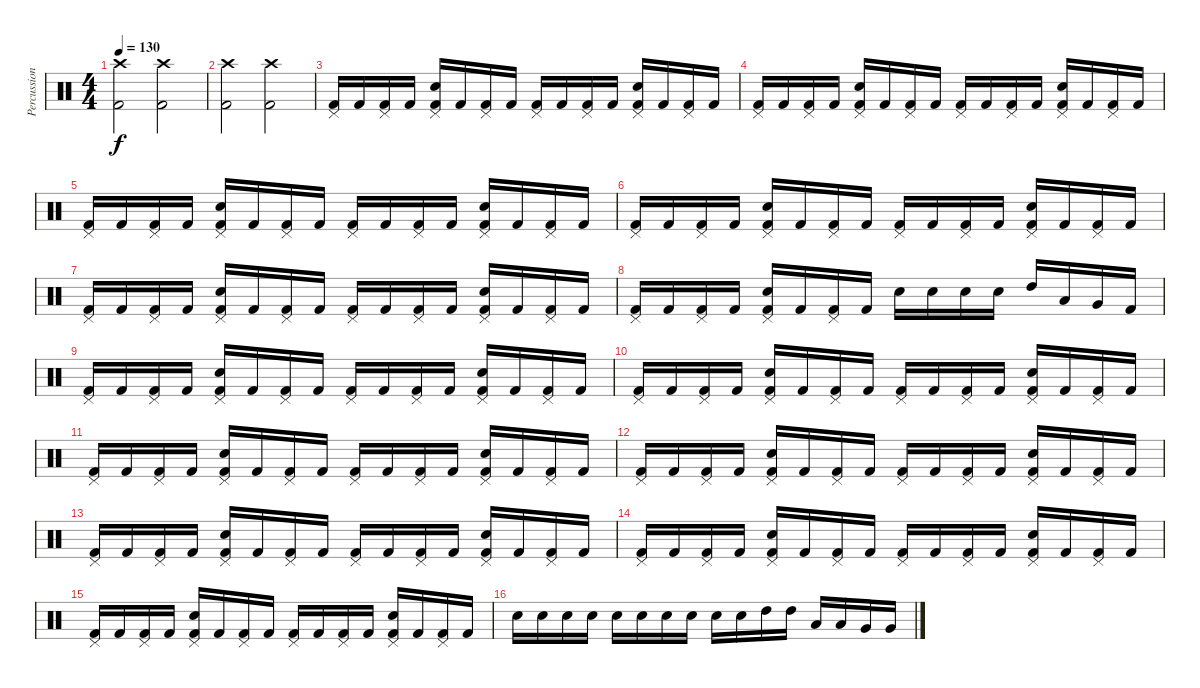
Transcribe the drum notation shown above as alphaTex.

\track ("Percussion" "Percussion") {instrument percussion}
\staff {score}
\articulation defaults
\ts (4 4)
\tempo 130
\clef neutral
\ks c
("Crash high (hit)" "Kick (hit) 2").2{dy f} ("Crash high (hit)" "Kick (hit) 2").2 |
("Crash high (hit)" "Kick (hit) 2").2 ("Crash high (hit)" "Kick (hit) 2").2 |
("Pedal Hi-Hat (hit)" "Kick (hit) 2").16 "Kick (hit) 2".16 ("Pedal Hi-Hat (hit)" "Kick (hit) 2").16 "Kick (hit) 2".16 ("Pedal Hi-Hat (hit)" "Snare (hit) 2" "Kick (hit) 2").16 "Kick (hit) 2".16 ("Pedal Hi-Hat (hit)" "Kick (hit) 2").16 "Kick (hit) 2".16 ("Pedal Hi-Hat (hit)" "Kick (hit) 2").16 "Kick (hit) 2".16 ("Pedal Hi-Hat (hit)" "Kick (hit) 2").16 "Kick (hit) 2".16 ("Pedal Hi-Hat (hit)" "Snare (hit) 2" "Kick (hit) 2").16 "Kick (hit) 2".16 ("Pedal Hi-Hat (hit)" "Kick (hit) 2").16 "Kick (hit) 2".16 |
("Pedal Hi-Hat (hit)" "Kick (hit) 2").16 "Kick (hit) 2".16 ("Pedal Hi-Hat (hit)" "Kick (hit) 2").16 "Kick (hit) 2".16 ("Pedal Hi-Hat (hit)" "Snare (hit) 2" "Kick (hit) 2").16 "Kick (hit) 2".16 ("Pedal Hi-Hat (hit)" "Kick (hit) 2").16 "Kick (hit) 2".16 ("Pedal Hi-Hat (hit)" "Kick (hit) 2").16 "Kick (hit) 2".16 ("Pedal Hi-Hat (hit)" "Kick (hit) 2").16 "Kick (hit) 2".16 ("Pedal Hi-Hat (hit)" "Snare (hit) 2" "Kick (hit) 2").16 "Kick (hit) 2".16 ("Pedal Hi-Hat (hit)" "Kick (hit) 2").16 "Kick (hit) 2".16 |
("Pedal Hi-Hat (hit)" "Kick (hit) 2").16 "Kick (hit) 2".16 ("Pedal Hi-Hat (hit)" "Kick (hit) 2").16 "Kick (hit) 2".16 ("Pedal Hi-Hat (hit)" "Snare (hit) 2" "Kick (hit) 2").16 "Kick (hit) 2".16 ("Pedal Hi-Hat (hit)" "Kick (hit) 2").16 "Kick (hit) 2".16 ("Pedal Hi-Hat (hit)" "Kick (hit) 2").16 "Kick (hit) 2".16 ("Pedal Hi-Hat (hit)" "Kick (hit) 2").16 "Kick (hit) 2".16 ("Pedal Hi-Hat (hit)" "Snare (hit) 2" "Kick (hit) 2").16 "Kick (hit) 2".16 ("Pedal Hi-Hat (hit)" "Kick (hit) 2").16 "Kick (hit) 2".16 |
("Pedal Hi-Hat (hit)" "Kick (hit) 2").16 "Kick (hit) 2".16 ("Pedal Hi-Hat (hit)" "Kick (hit) 2").16 "Kick (hit) 2".16 ("Pedal Hi-Hat (hit)" "Snare (hit) 2" "Kick (hit) 2").16 "Kick (hit) 2".16 ("Pedal Hi-Hat (hit)" "Kick (hit) 2").16 "Kick (hit) 2".16 ("Pedal Hi-Hat (hit)" "Kick (hit) 2").16 "Kick (hit) 2".16 ("Pedal Hi-Hat (hit)" "Kick (hit) 2").16 "Kick (hit) 2".16 ("Pedal Hi-Hat (hit)" "Snare (hit) 2" "Kick (hit) 2").16 "Kick (hit) 2".16 ("Pedal Hi-Hat (hit)" "Kick (hit) 2").16 "Kick (hit) 2".16 |
("Pedal Hi-Hat (hit)" "Kick (hit) 2").16 "Kick (hit) 2".16 ("Pedal Hi-Hat (hit)" "Kick (hit) 2").16 "Kick (hit) 2".16 ("Pedal Hi-Hat (hit)" "Snare (hit) 2" "Kick (hit) 2").16 "Kick (hit) 2".16 ("Pedal Hi-Hat (hit)" "Kick (hit) 2").16 "Kick (hit) 2".16 ("Pedal Hi-Hat (hit)" "Kick (hit) 2").16 "Kick (hit) 2".16 ("Pedal Hi-Hat (hit)" "Kick (hit) 2").16 "Kick (hit) 2".16 ("Pedal Hi-Hat (hit)" "Snare (hit) 2" "Kick (hit) 2").16 "Kick (hit) 2".16 ("Pedal Hi-Hat (hit)" "Kick (hit) 2").16 "Kick (hit) 2".16 |
("Pedal Hi-Hat (hit)" "Kick (hit) 2").16 "Kick (hit) 2".16 ("Pedal Hi-Hat (hit)" "Kick (hit) 2").16 "Kick (hit) 2".16 ("Pedal Hi-Hat (hit)" "Snare (hit) 2" "Kick (hit) 2").16 "Kick (hit) 2".16 ("Pedal Hi-Hat (hit)" "Kick (hit) 2").16 "Kick (hit) 2".16 "Snare (hit) 2".16 "Snare (hit) 2".16 "Snare (hit) 2".16 "Snare (hit) 2".16 "High Tom (hit)".16 "Low Tom (hit)".16 "Very Low Tom (hit)".16 "Kick (hit) 2".16 |
("Pedal Hi-Hat (hit)" "Kick (hit) 2").16 "Kick (hit) 2".16 ("Pedal Hi-Hat (hit)" "Kick (hit) 2").16 "Kick (hit) 2".16 ("Pedal Hi-Hat (hit)" "Snare (hit) 2" "Kick (hit) 2").16 "Kick (hit) 2".16 ("Pedal Hi-Hat (hit)" "Kick (hit) 2").16 "Kick (hit) 2".16 ("Pedal Hi-Hat (hit)" "Kick (hit) 2").16 "Kick (hit) 2".16 ("Pedal Hi-Hat (hit)" "Kick (hit) 2").16 "Kick (hit) 2".16 ("Pedal Hi-Hat (hit)" "Snare (hit) 2" "Kick (hit) 2").16 "Kick (hit) 2".16 ("Pedal Hi-Hat (hit)" "Kick (hit) 2").16 "Kick (hit) 2".16 |
("Pedal Hi-Hat (hit)" "Kick (hit) 2").16 "Kick (hit) 2".16 ("Pedal Hi-Hat (hit)" "Kick (hit) 2").16 "Kick (hit) 2".16 ("Pedal Hi-Hat (hit)" "Snare (hit) 2" "Kick (hit) 2").16 "Kick (hit) 2".16 ("Pedal Hi-Hat (hit)" "Kick (hit) 2").16 "Kick (hit) 2".16 ("Pedal Hi-Hat (hit)" "Kick (hit) 2").16 "Kick (hit) 2".16 ("Pedal Hi-Hat (hit)" "Kick (hit) 2").16 "Kick (hit) 2".16 ("Pedal Hi-Hat (hit)" "Snare (hit) 2" "Kick (hit) 2").16 "Kick (hit) 2".16 ("Pedal Hi-Hat (hit)" "Kick (hit) 2").16 "Kick (hit) 2".16 |
("Pedal Hi-Hat (hit)" "Kick (hit) 2").16 "Kick (hit) 2".16 ("Pedal Hi-Hat (hit)" "Kick (hit) 2").16 "Kick (hit) 2".16 ("Pedal Hi-Hat (hit)" "Snare (hit) 2" "Kick (hit) 2").16 "Kick (hit) 2".16 ("Pedal Hi-Hat (hit)" "Kick (hit) 2").16 "Kick (hit) 2".16 ("Pedal Hi-Hat (hit)" "Kick (hit) 2").16 "Kick (hit) 2".16 ("Pedal Hi-Hat (hit)" "Kick (hit) 2").16 "Kick (hit) 2".16 ("Pedal Hi-Hat (hit)" "Snare (hit) 2" "Kick (hit) 2").16 "Kick (hit) 2".16 ("Pedal Hi-Hat (hit)" "Kick (hit) 2").16 "Kick (hit) 2".16 |
("Pedal Hi-Hat (hit)" "Kick (hit) 2").16 "Kick (hit) 2".16 ("Pedal Hi-Hat (hit)" "Kick (hit) 2").16 "Kick (hit) 2".16 ("Pedal Hi-Hat (hit)" "Snare (hit) 2" "Kick (hit) 2").16 "Kick (hit) 2".16 ("Pedal Hi-Hat (hit)" "Kick (hit) 2").16 "Kick (hit) 2".16 ("Pedal Hi-Hat (hit)" "Kick (hit) 2").16 "Kick (hit) 2".16 ("Pedal Hi-Hat (hit)" "Kick (hit) 2").16 "Kick (hit) 2".16 ("Pedal Hi-Hat (hit)" "Snare (hit) 2" "Kick (hit) 2").16 "Kick (hit) 2".16 ("Pedal Hi-Hat (hit)" "Kick (hit) 2").16 "Kick (hit) 2".16 |
("Pedal Hi-Hat (hit)" "Kick (hit) 2").16 "Kick (hit) 2".16 ("Pedal Hi-Hat (hit)" "Kick (hit) 2").16 "Kick (hit) 2".16 ("Pedal Hi-Hat (hit)" "Snare (hit) 2" "Kick (hit) 2").16 "Kick (hit) 2".16 ("Pedal Hi-Hat (hit)" "Kick (hit) 2").16 "Kick (hit) 2".16 ("Pedal Hi-Hat (hit)" "Kick (hit) 2").16 "Kick (hit) 2".16 ("Pedal Hi-Hat (hit)" "Kick (hit) 2").16 "Kick (hit) 2".16 ("Pedal Hi-Hat (hit)" "Snare (hit) 2" "Kick (hit) 2").16 "Kick (hit) 2".16 ("Pedal Hi-Hat (hit)" "Kick (hit) 2").16 "Kick (hit) 2".16 |
("Pedal Hi-Hat (hit)" "Kick (hit) 2").16 "Kick (hit) 2".16 ("Pedal Hi-Hat (hit)" "Kick (hit) 2").16 "Kick (hit) 2".16 ("Pedal Hi-Hat (hit)" "Snare (hit) 2" "Kick (hit) 2").16 "Kick (hit) 2".16 ("Pedal Hi-Hat (hit)" "Kick (hit) 2").16 "Kick (hit) 2".16 ("Pedal Hi-Hat (hit)" "Kick (hit) 2").16 "Kick (hit) 2".16 ("Pedal Hi-Hat (hit)" "Kick (hit) 2").16 "Kick (hit) 2".16 ("Pedal Hi-Hat (hit)" "Snare (hit) 2" "Kick (hit) 2").16 "Kick (hit) 2".16 ("Pedal Hi-Hat (hit)" "Kick (hit) 2").16 "Kick (hit) 2".16 |
("Pedal Hi-Hat (hit)" "Kick (hit) 2").16 "Kick (hit) 2".16 ("Pedal Hi-Hat (hit)" "Kick (hit) 2").16 "Kick (hit) 2".16 ("Pedal Hi-Hat (hit)" "Snare (hit) 2" "Kick (hit) 2").16 "Kick (hit) 2".16 ("Pedal Hi-Hat (hit)" "Kick (hit) 2").16 "Kick (hit) 2".16 ("Pedal Hi-Hat (hit)" "Kick (hit) 2").16 "Kick (hit) 2".16 ("Pedal Hi-Hat (hit)" "Kick (hit) 2").16 "Kick (hit) 2".16 ("Pedal Hi-Hat (hit)" "Snare (hit) 2" "Kick (hit) 2").16 "Kick (hit) 2".16 ("Pedal Hi-Hat (hit)" "Kick (hit) 2").16 "Kick (hit) 2".16 |
"Snare (hit) 2".16 "Snare (hit) 2".16 "Snare (hit) 2".16 "Snare (hit) 2".16 "Snare (hit) 2".16 "Snare (hit) 2".16 "Snare (hit) 2".16 "Snare (hit) 2".16 "Snare (hit) 2".16 "Snare (hit) 2".16 "High Tom (hit)".16 "High Tom (hit)".16 "Low Tom (hit)".16 "Low Tom (hit)".16 "Very Low Tom (hit)".16 "Very Low Tom (hit)".16
